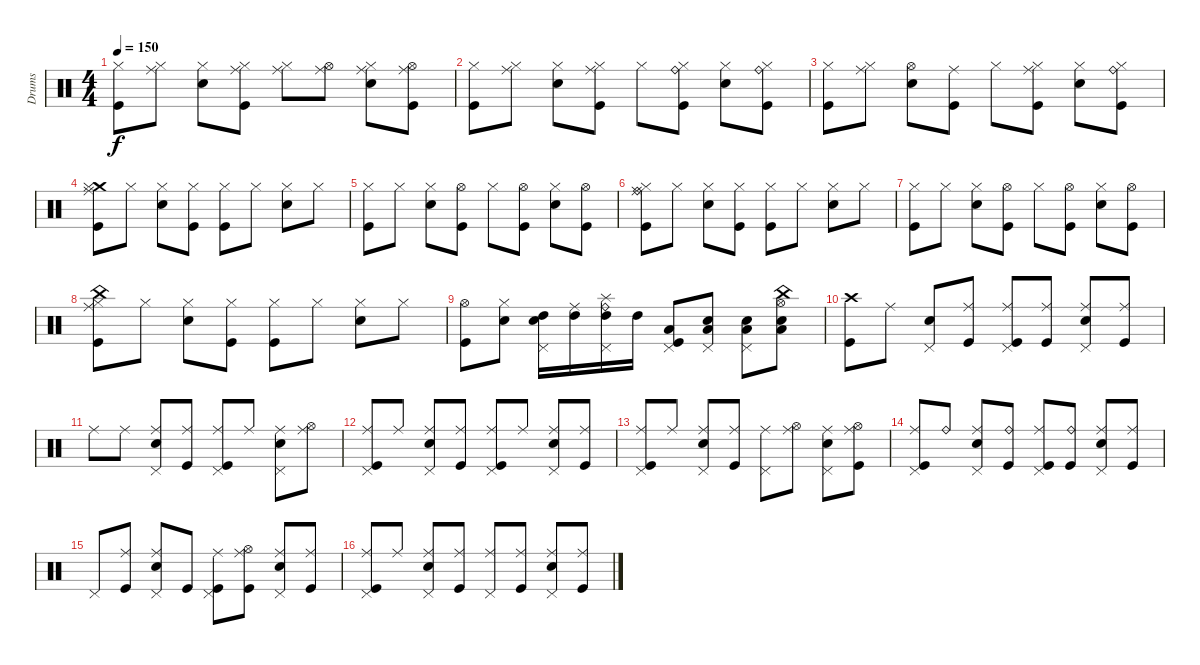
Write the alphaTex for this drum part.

\track ("Drums" "Drums") {instrument percussion}
\staff {score}
\articulation defaults
\ts (4 4)
\tempo 150
\clef neutral
\ks c
("Kick (hit)" "Hi-Hat (closed)").8{dy f} ("Hi-Hat (closed)" "Ride (middle)").8 ("Snare (hit) 2" "Hi-Hat (closed)").8 ("Kick (hit)" "Hi-Hat (closed)" "Ride (middle)").8 ("Hi-Hat (closed)" "Ride (middle)").8 ("Hi-Hat (open)" "Ride (middle)").8 ("Snare (hit) 2" "Hi-Hat (closed)" "Ride (middle)").8 ("Ride (middle)" "Kick (hit)" "Hi-Hat (open)").8 |
("Kick (hit)" "Hi-Hat (closed)").8 ("Hi-Hat (closed)" "Ride (middle)").8 ("Snare (hit) 2" "Hi-Hat (closed)").8 ("Kick (hit)" "Hi-Hat (closed)" "Ride (middle)").8 "Hi-Hat (closed)".8 ("Ride (bell)" "Kick (hit)" "Hi-Hat (closed)").8 ("Snare (hit) 2" "Hi-Hat (closed)").8 ("Hi-Hat (closed)" "Ride (bell)" "Kick (hit)").8 |
("Kick (hit)" "Hi-Hat (closed)").8 ("Hi-Hat (closed)" "Ride (middle)").8 ("Snare (hit) 2" "Hi-Hat (open)").8 ("Kick (hit)" "Ride (middle)").8 "Hi-Hat (closed)".8 ("Kick (hit)" "Hi-Hat (closed)" "Ride (middle)").8 ("Snare (hit) 2" "Hi-Hat (closed)").8 ("Ride (bell)" "Kick (hit)" "Hi-Hat (closed)").8 |
("Crash medium (hit)" "Kick (hit)" "Ride (middle)" "Hi-Hat (closed)").8 "Hi-Hat (closed)".8 ("Snare (hit) 2" "Hi-Hat (closed)").8 ("Kick (hit)" "Hi-Hat (closed)").8 ("Kick (hit)" "Hi-Hat (closed)").8 "Hi-Hat (closed)".8 ("Snare (hit) 2" "Hi-Hat (closed)").8 "Hi-Hat (closed)".8 |
("Kick (hit)" "Hi-Hat (closed)").8 "Hi-Hat (closed)".8 ("Snare (hit) 2" "Hi-Hat (closed)").8 ("Kick (hit)" "Hi-Hat (open)").8 "Hi-Hat (closed)".8 ("Kick (hit)" "Hi-Hat (open)").8 ("Snare (hit) 2" "Hi-Hat (closed)").8 ("Kick (hit)" "Hi-Hat (open)").8 |
("Ride (bell)" "Kick (hit)" "Ride (middle)" "Hi-Hat (closed)").8 "Hi-Hat (closed)".8 ("Snare (hit) 2" "Hi-Hat (closed)").8 ("Kick (hit)" "Hi-Hat (closed)").8 ("Kick (hit)" "Hi-Hat (closed)").8 "Hi-Hat (closed)".8 ("Snare (hit) 2" "Hi-Hat (closed)").8 "Hi-Hat (closed)".8 |
("Kick (hit)" "Hi-Hat (closed)").8 "Hi-Hat (closed)".8 ("Snare (hit) 2" "Hi-Hat (closed)").8 ("Kick (hit)" "Hi-Hat (open)").8 "Hi-Hat (closed)".8 ("Kick (hit)" "Hi-Hat (open)").8 ("Snare (hit) 2" "Hi-Hat (closed)").8 ("Kick (hit)" "Hi-Hat (open)").8 |
("Hi-Hat (closed)" "Ride (middle)" "Kick (hit)" "China (hit)").8 "Hi-Hat (closed)".8 ("Snare (hit) 2" "Hi-Hat (closed)").8 ("Kick (hit)" "Hi-Hat (closed)").8 ("Kick (hit)" "Hi-Hat (closed)").8 "Hi-Hat (closed)".8 ("Snare (hit) 2" "Hi-Hat (closed)").8 "Hi-Hat (closed)".8 |
("Kick (hit)" "Hi-Hat (open)").8 ("Snare (hit) 2" "Hi-Hat (closed)").8 ("Snare (hit) 2" "Pedal Hi-Hat (hit)" "High Tom (hit)").16 ("High Tom (hit)" "Ride (middle)").16 ("Splash (hit)" "Pedal Hi-Hat (hit)" "Ride (bell)" "High Tom (hit)").16 "High Tom (hit)".16 ("Pedal Hi-Hat (hit)" "Low Tom (hit)" "Kick (hit)").8 ("Low Tom (hit)" "Snare (hit) 2" "Pedal Hi-Hat (hit)").8 ("Snare (hit) 2" "Low Floor Tom (hit)" "Pedal Hi-Hat (hit)").8 ("China (hit)" "Low Floor Tom (hit)" "Snare (hit) 2" "Hi-Hat (open)").8 |
("Kick (hit)" "Crash high (hit)").8 "Ride (middle)".8 ("Snare (hit) 2" "Pedal Hi-Hat (hit)").8 ("Kick (hit)" "Ride (middle)").8 ("Kick (hit)" "Pedal Hi-Hat (hit)" "Ride (middle)").8 ("Kick (hit)" "Ride (middle)").8 ("Ride (middle)" "Snare (hit) 2" "Pedal Hi-Hat (hit)").8 ("Kick (hit)" "Ride (middle)").8 |
"Ride (middle)".8 "Ride (middle)".8 ("Ride (middle)" "Snare (hit) 2" "Pedal Hi-Hat (hit)").8 ("Kick (hit)" "Ride (middle)").8 ("Kick (hit)" "Pedal Hi-Hat (hit)" "Ride (middle)").8 "Ride (middle)".8 ("Snare (hit) 2" "Pedal Hi-Hat (hit)" "Ride (middle)").8 ("Hi-Hat (open)" "Ride (middle)").8 |
("Pedal Hi-Hat (hit)" "Ride (middle)" "Kick (hit)").8 "Ride (middle)".8 ("Ride (middle)" "Snare (hit) 2" "Pedal Hi-Hat (hit)").8 ("Kick (hit)" "Ride (middle)").8 ("Kick (hit)" "Pedal Hi-Hat (hit)" "Ride (middle)").8 "Ride (middle)".8 ("Snare (hit) 2" "Pedal Hi-Hat (hit)" "Ride (middle)").8 ("Kick (hit)" "Ride (middle)").8 |
("Kick (hit)" "Pedal Hi-Hat (hit)" "Ride (middle)").8 "Ride (middle)".8 ("Snare (hit) 2" "Pedal Hi-Hat (hit)" "Ride (middle)").8 ("Kick (hit)" "Ride (middle)").8 ("Pedal Hi-Hat (hit)" "Ride (middle)").8 ("Hi-Hat (open)" "Ride (middle)").8 ("Snare (hit) 2" "Pedal Hi-Hat (hit)" "Ride (middle)").8 ("Ride (middle)" "Kick (hit)" "Hi-Hat (open)").8 |
("Pedal Hi-Hat (hit)" "Ride (middle)" "Kick (hit)").8 "Ride (bell)".8 ("Snare (hit) 2" "Pedal Hi-Hat (hit)" "Ride (middle)").8 ("Kick (hit)" "Ride (bell)").8 ("Kick (hit)" "Pedal Hi-Hat (hit)" "Ride (middle)").8 ("Kick (hit)" "Ride (bell)").8 ("Ride (middle)" "Snare (hit) 2" "Pedal Hi-Hat (hit)").8 ("Kick (hit)" "Ride (middle)").8 |
"Pedal Hi-Hat (hit)".8 ("Kick (hit)" "Ride (middle)").8 ("Ride (middle)" "Snare (hit) 2" "Pedal Hi-Hat (hit)").8 "Kick (hit)".8 ("Kick (hit)" "Pedal Hi-Hat (hit)" "Ride (middle)").8 ("Kick (hit)" "Hi-Hat (open)" "Ride (middle)").8 ("Pedal Hi-Hat (hit)" "Ride (middle)" "Snare (hit) 2").8 ("Kick (hit)" "Ride (middle)").8 |
("Ride (middle)" "Kick (hit)" "Pedal Hi-Hat (hit)").8 "Ride (middle)".8 ("Snare (hit) 2" "Pedal Hi-Hat (hit)" "Ride (middle)").8 ("Kick (hit)" "Ride (middle)").8 ("Pedal Hi-Hat (hit)" "Ride (middle)").8 ("Kick (hit)" "Ride (middle)").8 ("Snare (hit) 2" "Pedal Hi-Hat (hit)" "Ride (middle)").8 ("Kick (hit)" "Ride (middle)").8
